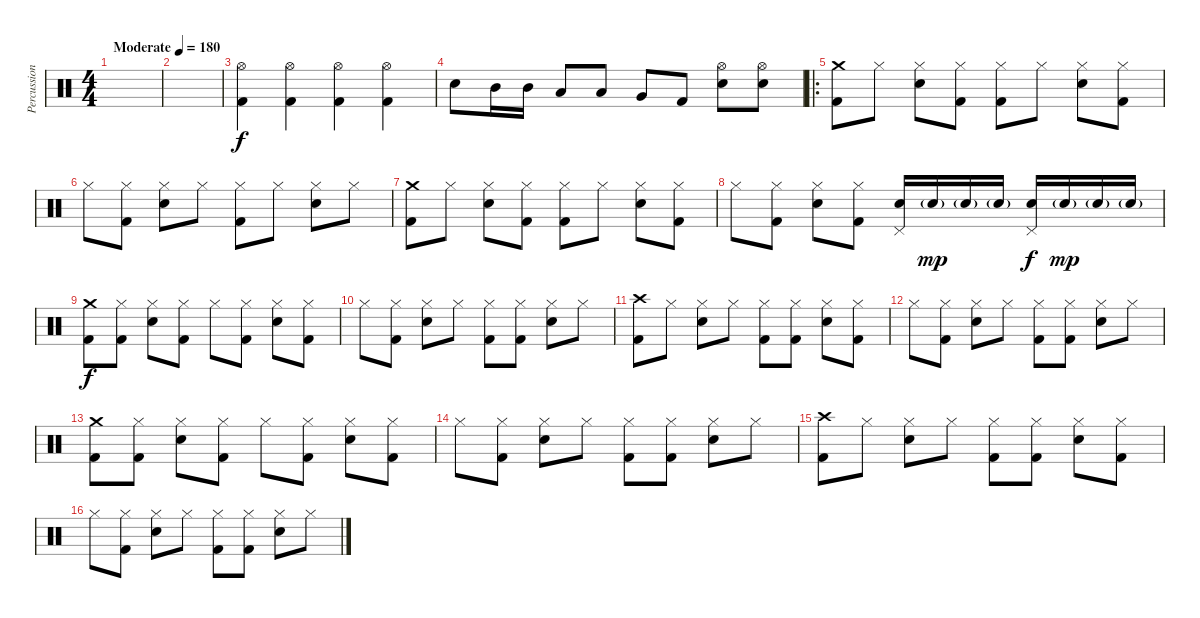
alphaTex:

\track ("Percussion" "Percussion") {instrument percussion}
\staff {score}
\articulation defaults
\ts (4 4)
\tempo (180 "Moderate")
\clef neutral
\ks c
|
|
("Hi-Hat (open)" "Kick (hit) 2").4 ("Hi-Hat (open)" "Kick (hit) 2").4 ("Hi-Hat (open)" "Kick (hit) 2").4 ("Hi-Hat (open)" "Kick (hit) 2").4 |
"Electric Snare (hit)".8 "Mid Tom (hit)".16 "Mid Tom (hit)".16 "Low Tom (hit)".8 "Low Tom (hit)".8 "Very Low Tom (hit)".8 "Kick (hit) 2".8 ("Hi-Hat (open)" "Electric Snare (hit)").8 ("Hi-Hat (open)" "Electric Snare (hit)").8 |
\ro
("Crash medium (hit)" "Kick (hit) 2").8 "Hi-Hat (closed)".8 ("Hi-Hat (closed)" "Electric Snare (hit)").8 ("Hi-Hat (closed)" "Kick (hit) 2").8 ("Hi-Hat (closed)" "Kick (hit) 2").8 "Hi-Hat (closed)".8 ("Hi-Hat (closed)" "Electric Snare (hit)").8 ("Hi-Hat (closed)" "Kick (hit) 2").8 |
"Hi-Hat (closed)".8 ("Hi-Hat (closed)" "Kick (hit) 2").8 ("Hi-Hat (closed)" "Electric Snare (hit)").8 "Hi-Hat (closed)".8 ("Hi-Hat (closed)" "Kick (hit) 2").8 "Hi-Hat (closed)".8 ("Hi-Hat (closed)" "Electric Snare (hit)").8 "Hi-Hat (closed)".8 |
("Crash medium (hit)" "Kick (hit) 2").8 "Hi-Hat (closed)".8 ("Hi-Hat (closed)" "Electric Snare (hit)").8 ("Hi-Hat (closed)" "Kick (hit) 2").8 ("Hi-Hat (closed)" "Kick (hit) 2").8 "Hi-Hat (closed)".8 ("Hi-Hat (closed)" "Electric Snare (hit)").8 ("Hi-Hat (closed)" "Kick (hit) 2").8 |
"Hi-Hat (closed)".8 ("Hi-Hat (closed)" "Kick (hit) 2").8 ("Hi-Hat (closed)" "Electric Snare (hit)").8 ("Hi-Hat (closed)" "Kick (hit) 2").8 ("Pedal Hi-Hat (hit)" "Electric Snare (hit)").16 "Electric Snare (hit)"{g}.16{dy mp} "Electric Snare (hit)"{g}.16 "Electric Snare (hit)"{g}.16 ("Pedal Hi-Hat (hit)" "Electric Snare (hit)").16{dy f} "Electric Snare (hit)"{g}.16{dy mp} "Electric Snare (hit)"{g}.16 "Electric Snare (hit)"{g}.16 |
("Crash medium (hit)" "Kick (hit) 2").8{dy f} ("Hi-Hat (closed)" "Kick (hit) 2").8 ("Hi-Hat (closed)" "Electric Snare (hit)").8 ("Hi-Hat (closed)" "Kick (hit) 2").8 "Hi-Hat (closed)".8 ("Hi-Hat (closed)" "Kick (hit) 2").8 ("Hi-Hat (closed)" "Electric Snare (hit)").8 ("Hi-Hat (closed)" "Kick (hit) 2").8 |
"Hi-Hat (closed)".8 ("Hi-Hat (closed)" "Kick (hit) 2").8 ("Hi-Hat (closed)" "Electric Snare (hit)").8 "Hi-Hat (closed)".8 ("Hi-Hat (closed)" "Kick (hit) 2").8 ("Hi-Hat (closed)" "Kick (hit) 2").8 ("Hi-Hat (closed)" "Electric Snare (hit)").8 "Hi-Hat (closed)".8 |
("Crash high (hit)" "Kick (hit) 2").8 "Hi-Hat (closed)".8 ("Hi-Hat (closed)" "Electric Snare (hit)").8 "Hi-Hat (closed)".8 ("Hi-Hat (closed)" "Kick (hit) 2").8 ("Hi-Hat (closed)" "Kick (hit) 2").8 ("Hi-Hat (closed)" "Electric Snare (hit)").8 ("Hi-Hat (closed)" "Kick (hit) 2").8 |
"Hi-Hat (closed)".8 ("Hi-Hat (closed)" "Kick (hit) 2").8 ("Hi-Hat (closed)" "Electric Snare (hit)").8 "Hi-Hat (closed)".8 ("Hi-Hat (closed)" "Kick (hit) 2").8 ("Hi-Hat (closed)" "Kick (hit) 2").8 ("Hi-Hat (closed)" "Electric Snare (hit)").8 "Hi-Hat (closed)".8 |
("Crash medium (hit)" "Kick (hit) 2").8 ("Hi-Hat (closed)" "Kick (hit) 2").8 ("Hi-Hat (closed)" "Electric Snare (hit)").8 ("Hi-Hat (closed)" "Kick (hit) 2").8 "Hi-Hat (closed)".8 ("Hi-Hat (closed)" "Kick (hit) 2").8 ("Hi-Hat (closed)" "Electric Snare (hit)").8 ("Hi-Hat (closed)" "Kick (hit) 2").8 |
"Hi-Hat (closed)".8 ("Hi-Hat (closed)" "Kick (hit) 2").8 ("Hi-Hat (closed)" "Electric Snare (hit)").8 "Hi-Hat (closed)".8 ("Hi-Hat (closed)" "Kick (hit) 2").8 ("Hi-Hat (closed)" "Kick (hit) 2").8 ("Hi-Hat (closed)" "Electric Snare (hit)").8 "Hi-Hat (closed)".8 |
("Crash high (hit)" "Kick (hit) 2").8 "Hi-Hat (closed)".8 ("Hi-Hat (closed)" "Electric Snare (hit)").8 "Hi-Hat (closed)".8 ("Hi-Hat (closed)" "Kick (hit) 2").8 ("Hi-Hat (closed)" "Kick (hit) 2").8 ("Hi-Hat (closed)" "Electric Snare (hit)").8 ("Hi-Hat (closed)" "Kick (hit) 2").8 |
"Hi-Hat (closed)".8 ("Hi-Hat (closed)" "Kick (hit) 2").8 ("Hi-Hat (closed)" "Electric Snare (hit)").8 "Hi-Hat (closed)".8 ("Hi-Hat (closed)" "Kick (hit) 2").8 ("Hi-Hat (closed)" "Kick (hit) 2").8 ("Hi-Hat (closed)" "Electric Snare (hit)").8 "Hi-Hat (closed)".8
